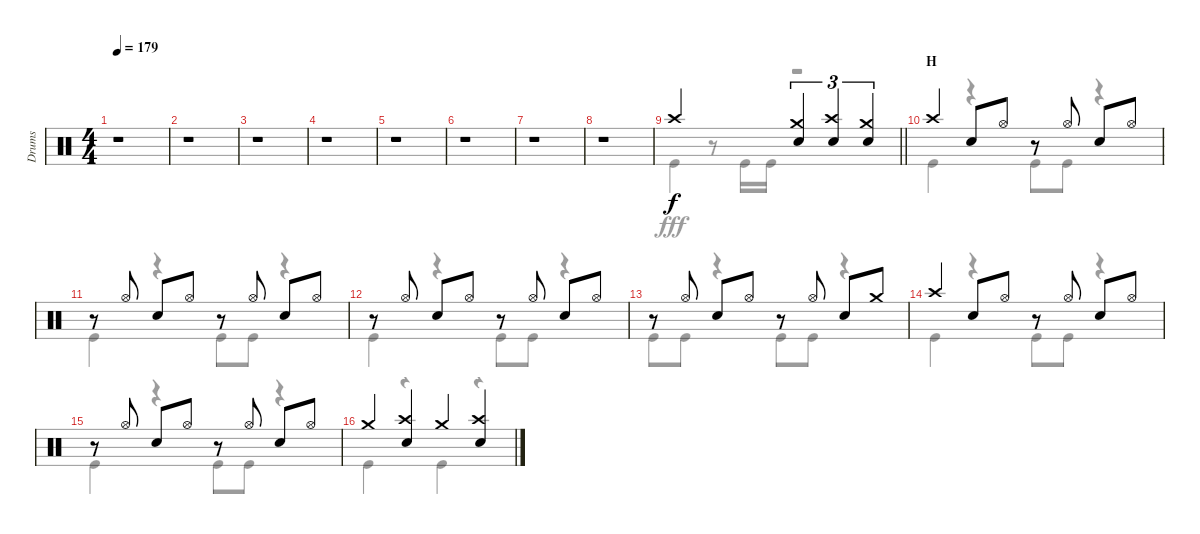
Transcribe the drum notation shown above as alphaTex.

\track ("Drums" "Drums") {instrument percussion}
\staff {score}
\articulation defaults
\voice
\ts (4 4)
\tempo 179
\clef neutral
\ks c
r.1{dy f} |
r.1 |
r.1 |
r.1 |
r.1 |
r.1 |
r.1 |
r.1 |
\barLineRight lightlight "Crash high (hit)".2
("Crash medium (hit)" "Snare (hit) 2").4{tu (3 2)} ("Crash high (hit)" "Snare (hit) 2").4{tu (3 2)} ("Crash medium (hit)" "Snare (hit) 2").4{tu (3 2)} |
\section ("" "H")
"Crash high (hit)".4 "Snare (hit) 2".8 "Hi-Hat (open)".8 r.8 "Hi-Hat (open)".8 "Snare (hit) 2".8 "Hi-Hat (open)".8 |
r.8 "Hi-Hat (open)".8 "Snare (hit) 2".8 "Hi-Hat (open)".8 r.8 "Hi-Hat (open)".8 "Snare (hit) 2".8 "Hi-Hat (open)".8 |
r.8 "Hi-Hat (open)".8 "Snare (hit) 2".8 "Hi-Hat (open)".8 r.8 "Hi-Hat (open)".8 "Snare (hit) 2".8 "Hi-Hat (open)".8 |
r.8 "Hi-Hat (open)".8 "Snare (hit) 2".8 "Hi-Hat (open)".8 r.8 "Hi-Hat (open)".8 "Snare (hit) 2".8 "Crash medium (hit)".8 |
"Crash high (hit)".4 "Snare (hit) 2".8 "Hi-Hat (open)".8 r.8 "Hi-Hat (open)".8 "Snare (hit) 2".8 "Hi-Hat (open)".8 |
r.8 "Hi-Hat (open)".8 "Snare (hit) 2".8 "Hi-Hat (open)".8 r.8 "Hi-Hat (open)".8 "Snare (hit) 2".8 "Hi-Hat (open)".8 |
"Crash medium (hit)".4 ("Crash high (hit)" "Snare (hit) 2").4 "Crash medium (hit)".4 ("Crash high (hit)" "Snare (hit) 2").4
\voice
\clef neutral
\ottava regular
\simile none
\ks c
r.1{dy fff} |
r.1 |
r.1 |
r.1 |
r.1 |
r.1 |
r.1 |
r.1 |
\barLineRight lightlight "Kick (hit)".4
r.8 "Kick (hit)".16 "Kick (hit)".16 r.2 |
"Kick (hit)".4 r.4 "Kick (hit)".8 "Kick (hit)".8 r.4 |
"Kick (hit)".4 r.4 "Kick (hit)".8 "Kick (hit)".8 r.4 |
"Kick (hit)".4 r.4 "Kick (hit)".8 "Kick (hit)".8 r.4 |
"Kick (hit)".8 "Kick (hit)".8 r.4 "Kick (hit)".8 "Kick (hit)".8 r.4 |
"Kick (hit)".4 r.4 "Kick (hit)".8 "Kick (hit)".8 r.4 |
"Kick (hit)".4 r.4 "Kick (hit)".8 "Kick (hit)".8 r.4 |
"Kick (hit)".4 r.4 "Kick (hit)".4 r.4
